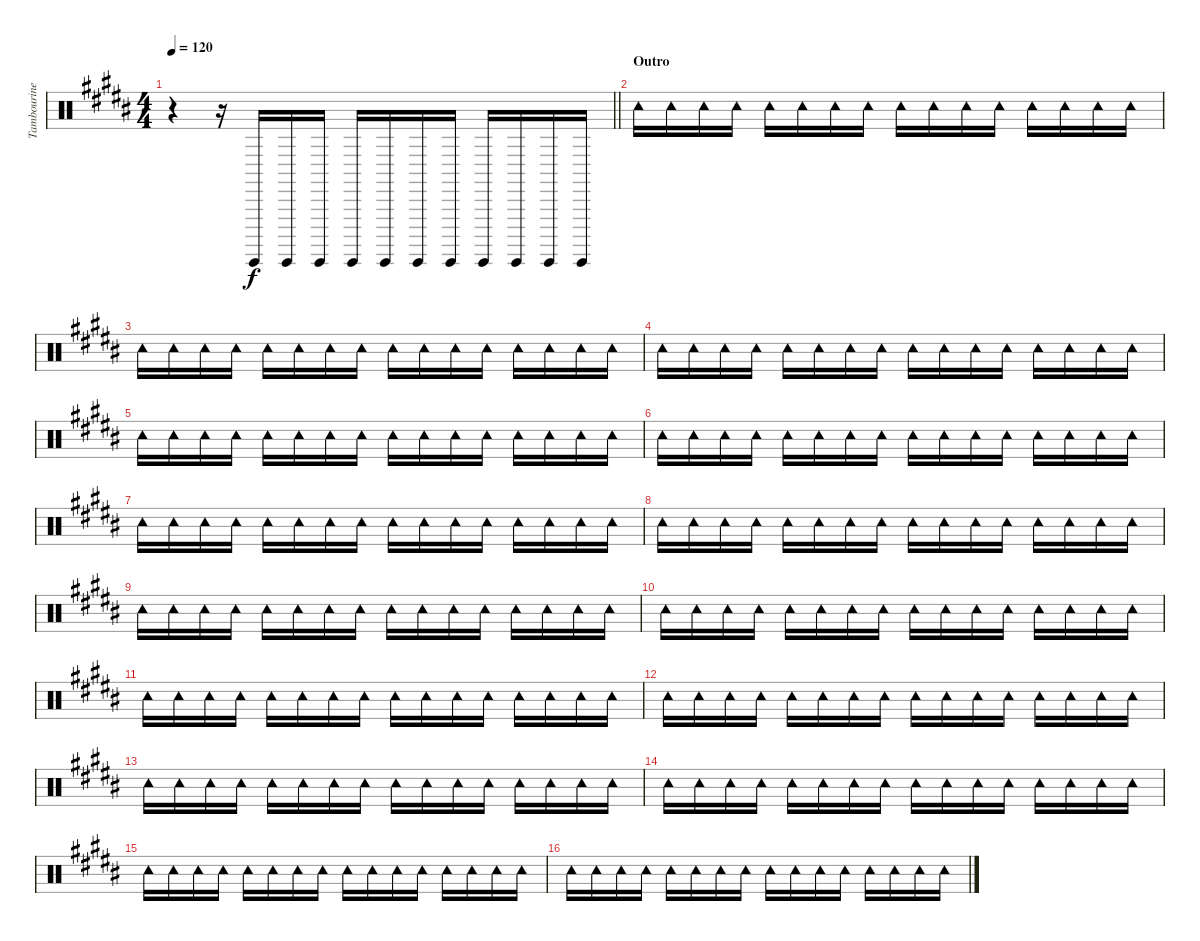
\track ("Tambourine" "Tambourine") {instrument percussion}
\staff {score}
\articulation defaults
\ts (4 4)
\tempo 120
\clef neutral
\barLineRight lightlight
\ks b
r.4{dy f} r.16 "Guiro (hit)".16 "Guiro (hit)".16 "Guiro (hit)".16 "Guiro (hit)".16 "Guiro (hit)".16 "Guiro (hit)".16 "Guiro (hit)".16 "Guiro (hit)".16 "Guiro (hit)".16 "Guiro (hit)".16 "Guiro (hit)".16 |
\section ("" "Outro")
"Tambourine (hit)".16 "Tambourine (hit)".16 "Tambourine (hit)".16 "Tambourine (hit)".16 "Tambourine (hit)".16 "Tambourine (hit)".16 "Tambourine (hit)".16 "Tambourine (hit)".16 "Tambourine (hit)".16 "Tambourine (hit)".16 "Tambourine (hit)".16 "Tambourine (hit)".16 "Tambourine (hit)".16 "Tambourine (hit)".16 "Tambourine (hit)".16 "Tambourine (hit)".16 |
"Tambourine (hit)".16 "Tambourine (hit)".16 "Tambourine (hit)".16 "Tambourine (hit)".16 "Tambourine (hit)".16 "Tambourine (hit)".16 "Tambourine (hit)".16 "Tambourine (hit)".16 "Tambourine (hit)".16 "Tambourine (hit)".16 "Tambourine (hit)".16 "Tambourine (hit)".16 "Tambourine (hit)".16 "Tambourine (hit)".16 "Tambourine (hit)".16 "Tambourine (hit)".16 |
"Tambourine (hit)".16 "Tambourine (hit)".16 "Tambourine (hit)".16 "Tambourine (hit)".16 "Tambourine (hit)".16 "Tambourine (hit)".16 "Tambourine (hit)".16 "Tambourine (hit)".16 "Tambourine (hit)".16 "Tambourine (hit)".16 "Tambourine (hit)".16 "Tambourine (hit)".16 "Tambourine (hit)".16 "Tambourine (hit)".16 "Tambourine (hit)".16 "Tambourine (hit)".16 |
"Tambourine (hit)".16 "Tambourine (hit)".16 "Tambourine (hit)".16 "Tambourine (hit)".16 "Tambourine (hit)".16 "Tambourine (hit)".16 "Tambourine (hit)".16 "Tambourine (hit)".16 "Tambourine (hit)".16 "Tambourine (hit)".16 "Tambourine (hit)".16 "Tambourine (hit)".16 "Tambourine (hit)".16 "Tambourine (hit)".16 "Tambourine (hit)".16 "Tambourine (hit)".16 |
"Tambourine (hit)".16 "Tambourine (hit)".16 "Tambourine (hit)".16 "Tambourine (hit)".16 "Tambourine (hit)".16 "Tambourine (hit)".16 "Tambourine (hit)".16 "Tambourine (hit)".16 "Tambourine (hit)".16 "Tambourine (hit)".16 "Tambourine (hit)".16 "Tambourine (hit)".16 "Tambourine (hit)".16 "Tambourine (hit)".16 "Tambourine (hit)".16 "Tambourine (hit)".16 |
"Tambourine (hit)".16 "Tambourine (hit)".16 "Tambourine (hit)".16 "Tambourine (hit)".16 "Tambourine (hit)".16 "Tambourine (hit)".16 "Tambourine (hit)".16 "Tambourine (hit)".16 "Tambourine (hit)".16 "Tambourine (hit)".16 "Tambourine (hit)".16 "Tambourine (hit)".16 "Tambourine (hit)".16 "Tambourine (hit)".16 "Tambourine (hit)".16 "Tambourine (hit)".16 |
"Tambourine (hit)".16 "Tambourine (hit)".16 "Tambourine (hit)".16 "Tambourine (hit)".16 "Tambourine (hit)".16 "Tambourine (hit)".16 "Tambourine (hit)".16 "Tambourine (hit)".16 "Tambourine (hit)".16 "Tambourine (hit)".16 "Tambourine (hit)".16 "Tambourine (hit)".16 "Tambourine (hit)".16 "Tambourine (hit)".16 "Tambourine (hit)".16 "Tambourine (hit)".16 |
"Tambourine (hit)".16 "Tambourine (hit)".16 "Tambourine (hit)".16 "Tambourine (hit)".16 "Tambourine (hit)".16 "Tambourine (hit)".16 "Tambourine (hit)".16 "Tambourine (hit)".16 "Tambourine (hit)".16 "Tambourine (hit)".16 "Tambourine (hit)".16 "Tambourine (hit)".16 "Tambourine (hit)".16 "Tambourine (hit)".16 "Tambourine (hit)".16 "Tambourine (hit)".16 |
"Tambourine (hit)".16 "Tambourine (hit)".16 "Tambourine (hit)".16 "Tambourine (hit)".16 "Tambourine (hit)".16 "Tambourine (hit)".16 "Tambourine (hit)".16 "Tambourine (hit)".16 "Tambourine (hit)".16 "Tambourine (hit)".16 "Tambourine (hit)".16 "Tambourine (hit)".16 "Tambourine (hit)".16 "Tambourine (hit)".16 "Tambourine (hit)".16 "Tambourine (hit)".16 |
"Tambourine (hit)".16 "Tambourine (hit)".16 "Tambourine (hit)".16 "Tambourine (hit)".16 "Tambourine (hit)".16 "Tambourine (hit)".16 "Tambourine (hit)".16 "Tambourine (hit)".16 "Tambourine (hit)".16 "Tambourine (hit)".16 "Tambourine (hit)".16 "Tambourine (hit)".16 "Tambourine (hit)".16 "Tambourine (hit)".16 "Tambourine (hit)".16 "Tambourine (hit)".16 |
"Tambourine (hit)".16 "Tambourine (hit)".16 "Tambourine (hit)".16 "Tambourine (hit)".16 "Tambourine (hit)".16 "Tambourine (hit)".16 "Tambourine (hit)".16 "Tambourine (hit)".16 "Tambourine (hit)".16 "Tambourine (hit)".16 "Tambourine (hit)".16 "Tambourine (hit)".16 "Tambourine (hit)".16 "Tambourine (hit)".16 "Tambourine (hit)".16 "Tambourine (hit)".16 |
"Tambourine (hit)".16 "Tambourine (hit)".16 "Tambourine (hit)".16 "Tambourine (hit)".16 "Tambourine (hit)".16 "Tambourine (hit)".16 "Tambourine (hit)".16 "Tambourine (hit)".16 "Tambourine (hit)".16 "Tambourine (hit)".16 "Tambourine (hit)".16 "Tambourine (hit)".16 "Tambourine (hit)".16 "Tambourine (hit)".16 "Tambourine (hit)".16 "Tambourine (hit)".16 |
"Tambourine (hit)".16 "Tambourine (hit)".16 "Tambourine (hit)".16 "Tambourine (hit)".16 "Tambourine (hit)".16 "Tambourine (hit)".16 "Tambourine (hit)".16 "Tambourine (hit)".16 "Tambourine (hit)".16 "Tambourine (hit)".16 "Tambourine (hit)".16 "Tambourine (hit)".16 "Tambourine (hit)".16 "Tambourine (hit)".16 "Tambourine (hit)".16 "Tambourine (hit)".16 |
"Tambourine (hit)".16 "Tambourine (hit)".16 "Tambourine (hit)".16 "Tambourine (hit)".16 "Tambourine (hit)".16 "Tambourine (hit)".16 "Tambourine (hit)".16 "Tambourine (hit)".16 "Tambourine (hit)".16 "Tambourine (hit)".16 "Tambourine (hit)".16 "Tambourine (hit)".16 "Tambourine (hit)".16 "Tambourine (hit)".16 "Tambourine (hit)".16 "Tambourine (hit)".16 |
"Tambourine (hit)".16 "Tambourine (hit)".16 "Tambourine (hit)".16 "Tambourine (hit)".16 "Tambourine (hit)".16 "Tambourine (hit)".16 "Tambourine (hit)".16 "Tambourine (hit)".16 "Tambourine (hit)".16 "Tambourine (hit)".16 "Tambourine (hit)".16 "Tambourine (hit)".16 "Tambourine (hit)".16 "Tambourine (hit)".16 "Tambourine (hit)".16 "Tambourine (hit)".16
